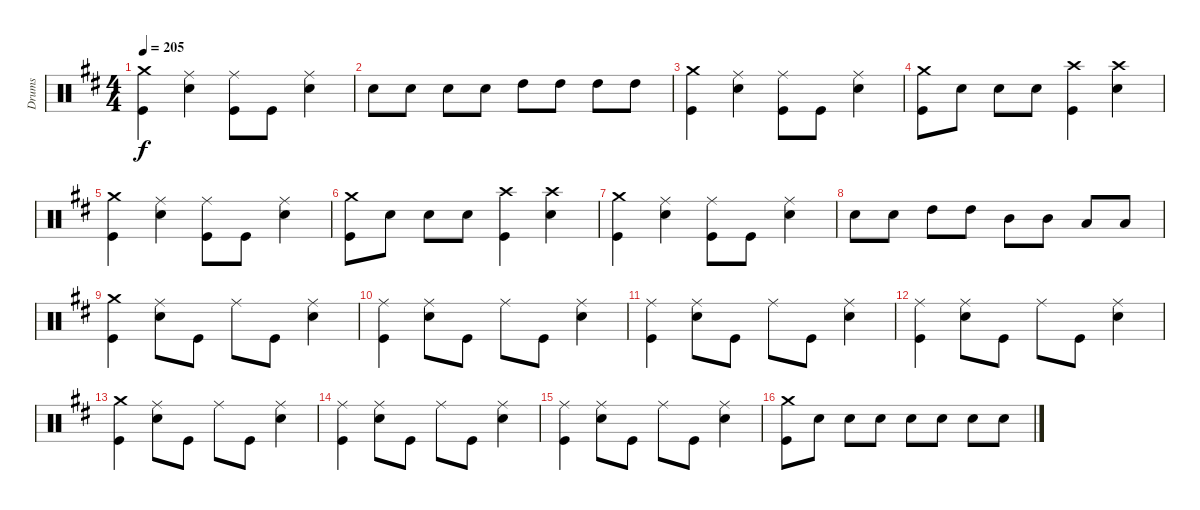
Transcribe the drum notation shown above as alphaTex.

\track ("Drums" "Drums") {instrument percussion}
\staff {score}
\articulation defaults
\ts (4 4)
\tempo 205
\clef neutral
\ks d
("Crash medium (hit)" "Kick (hit)").4{dy f} ("Ride (middle)" "Electric Snare (hit)").4 ("Ride (middle)" "Kick (hit)").8 "Kick (hit)".8 ("Ride (middle)" "Electric Snare (hit)").4 |
"Electric Snare (hit)".8 "Electric Snare (hit)".8 "Electric Snare (hit)".8 "Electric Snare (hit)".8 "High Tom (hit)".8 "High Tom (hit)".8 "High Tom (hit)".8 "High Tom (hit)".8 |
("Crash medium (hit)" "Kick (hit)").4 ("Ride (middle)" "Electric Snare (hit)").4 ("Ride (middle)" "Kick (hit)").8 "Kick (hit)".8 ("Ride (middle)" "Electric Snare (hit)").4 |
("Crash medium (hit)" "Kick (hit)").8 "Electric Snare (hit)".8 "Electric Snare (hit)".8 "Electric Snare (hit)".8 ("Crash high (hit)" "Kick (hit)").4 ("Electric Snare (hit)" "Crash high (hit)").4 |
("Crash medium (hit)" "Kick (hit)").4 ("Electric Snare (hit)" "Ride (middle)").4 ("Kick (hit)" "Ride (middle)").8 "Kick (hit)".8 ("Electric Snare (hit)" "Ride (middle)").4 |
("Crash medium (hit)" "Kick (hit)").8 "Electric Snare (hit)".8 "Electric Snare (hit)".8 "Electric Snare (hit)".8 ("Crash high (hit)" "Kick (hit)").4 ("Electric Snare (hit)" "Crash high (hit)").4 |
("Crash medium (hit)" "Kick (hit)").4 ("Electric Snare (hit)" "Ride (middle)").4 ("Kick (hit)" "Ride (middle)").8 "Kick (hit)".8 ("Electric Snare (hit)" "Ride (middle)").4 |
"Electric Snare (hit)".8 "Electric Snare (hit)".8 "High Tom (hit)".8 "High Tom (hit)".8 "Mid Tom (hit)".8 "Mid Tom (hit)".8 "Low Tom (hit)".8 "Low Tom (hit)".8 |
("Crash medium (hit)" "Kick (hit)").4 ("Ride (middle)" "Electric Snare (hit)").8 "Kick (hit)".8 "Ride (middle)".8 "Kick (hit)".8 ("Ride (middle)" "Electric Snare (hit)").4 |
("Ride (middle)" "Kick (hit)").4 ("Ride (middle)" "Electric Snare (hit)").8 "Kick (hit)".8 "Ride (middle)".8 "Kick (hit)".8 ("Ride (middle)" "Electric Snare (hit)").4 |
("Ride (middle)" "Kick (hit)").4 ("Ride (middle)" "Electric Snare (hit)").8 "Kick (hit)".8 "Ride (middle)".8 "Kick (hit)".8 ("Ride (middle)" "Electric Snare (hit)").4 |
("Ride (middle)" "Kick (hit)").4 ("Ride (middle)" "Electric Snare (hit)").8 "Kick (hit)".8 "Ride (middle)".8 "Kick (hit)".8 ("Ride (middle)" "Electric Snare (hit)").4 |
("Crash medium (hit)" "Kick (hit)").4 ("Ride (middle)" "Electric Snare (hit)").8 "Kick (hit)".8 "Ride (middle)".8 "Kick (hit)".8 ("Ride (middle)" "Electric Snare (hit)").4 |
("Ride (middle)" "Kick (hit)").4 ("Ride (middle)" "Electric Snare (hit)").8 "Kick (hit)".8 "Ride (middle)".8 "Kick (hit)".8 ("Ride (middle)" "Electric Snare (hit)").4 |
("Ride (middle)" "Kick (hit)").4 ("Ride (middle)" "Electric Snare (hit)").8 "Kick (hit)".8 "Ride (middle)".8 "Kick (hit)".8 ("Ride (middle)" "Electric Snare (hit)").4 |
("Crash medium (hit)" "Kick (hit)").8 "Electric Snare (hit)".8 "Electric Snare (hit)".8 "Electric Snare (hit)".8 "Electric Snare (hit)".8 "Electric Snare (hit)".8 "Electric Snare (hit)".8 "Electric Snare (hit)".8
